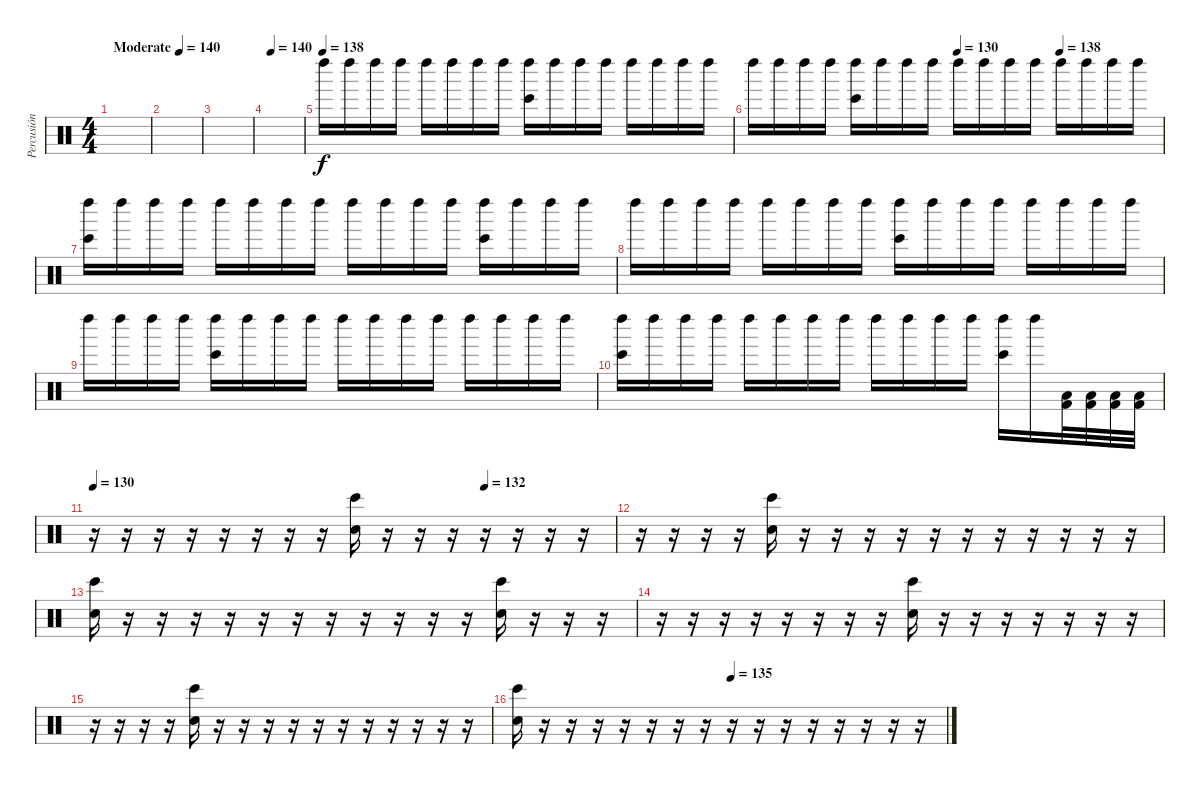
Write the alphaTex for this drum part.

\track ("Percusión" "Percusión") {instrument percussion}
\staff {score}
\articulation defaults
\ts (4 4)
\tempo (140 "Moderate")
\clef neutral
\ks c
|
|
|
\tempo (140 0.125)
|
\tempo (138)
"Left Maraca (hit)".16 "Left Maraca (hit)".16 "Left Maraca (hit)".16 "Left Maraca (hit)".16 "Left Maraca (hit)".16 "Left Maraca (hit)".16 "Left Maraca (hit)".16 "Left Maraca (hit)".16 ("Bongo High (hit)" "Left Maraca (hit)").16 "Left Maraca (hit)".16 "Left Maraca (hit)".16 "Left Maraca (hit)".16 "Left Maraca (hit)".16 "Left Maraca (hit)".16 "Left Maraca (hit)".16 "Left Maraca (hit)".16 |
\tempo (130 0.5)
\tempo (138 0.75)
"Left Maraca (hit)".16 "Left Maraca (hit)".16 "Left Maraca (hit)".16 "Left Maraca (hit)".16 ("Bongo High (hit)" "Left Maraca (hit)").16 "Left Maraca (hit)".16 "Left Maraca (hit)".16 "Left Maraca (hit)".16 "Left Maraca (hit)".16 "Left Maraca (hit)".16 "Left Maraca (hit)".16 "Left Maraca (hit)".16 "Left Maraca (hit)".16 "Left Maraca (hit)".16 "Left Maraca (hit)".16 "Left Maraca (hit)".16 |
("Bongo High (hit)" "Left Maraca (hit)").16 "Left Maraca (hit)".16 "Left Maraca (hit)".16 "Left Maraca (hit)".16 "Left Maraca (hit)".16 "Left Maraca (hit)".16 "Left Maraca (hit)".16 "Left Maraca (hit)".16 "Left Maraca (hit)".16 "Left Maraca (hit)".16 "Left Maraca (hit)".16 "Left Maraca (hit)".16 ("Bongo High (hit)" "Left Maraca (hit)").16 "Left Maraca (hit)".16 "Left Maraca (hit)".16 "Left Maraca (hit)".16 |
"Left Maraca (hit)".16 "Left Maraca (hit)".16 "Left Maraca (hit)".16 "Left Maraca (hit)".16 "Left Maraca (hit)".16 "Left Maraca (hit)".16 "Left Maraca (hit)".16 "Left Maraca (hit)".16 ("Bongo High (hit)" "Left Maraca (hit)").16 "Left Maraca (hit)".16 "Left Maraca (hit)".16 "Left Maraca (hit)".16 "Left Maraca (hit)".16 "Left Maraca (hit)".16 "Left Maraca (hit)".16 "Left Maraca (hit)".16 |
"Left Maraca (hit)".16 "Left Maraca (hit)".16 "Left Maraca (hit)".16 "Left Maraca (hit)".16 ("Bongo High (hit)" "Left Maraca (hit)").16 "Left Maraca (hit)".16 "Left Maraca (hit)".16 "Left Maraca (hit)".16 "Left Maraca (hit)".16 "Left Maraca (hit)".16 "Left Maraca (hit)".16 "Left Maraca (hit)".16 "Left Maraca (hit)".16 "Left Maraca (hit)".16 "Left Maraca (hit)".16 "Left Maraca (hit)".16 |
("Bongo High (hit)" "Left Maraca (hit)").16 "Left Maraca (hit)".16 "Left Maraca (hit)".16 "Left Maraca (hit)".16 "Left Maraca (hit)".16 "Left Maraca (hit)".16 "Left Maraca (hit)".16 "Left Maraca (hit)".16 "Left Maraca (hit)".16 "Left Maraca (hit)".16 "Left Maraca (hit)".16 "Left Maraca (hit)".16 ("Bongo High (hit)" "Left Maraca (hit)").16 "Left Maraca (hit)".16 ("Kick (hit) 2" "Low Tom (hit)").32 ("Kick (hit) 2" "Low Tom (hit)").32 ("Kick (hit) 2" "Low Tom (hit)").32 ("Kick (hit) 2" "Low Tom (hit)").32 |
\tempo 130
\tempo (135 0.75)
\tempo (132 0.75)
r.16 r.16 r.16 r.16 r.16 r.16 r.16 r.16 ("Bongo High (hit)" "Snare (hit) 2").16 r.16 r.16 r.16 r.16 r.16 r.16 r.16 |
r.16 r.16 r.16 r.16 ("Bongo High (hit)" "Snare (hit) 2").16 r.16 r.16 r.16 r.16 r.16 r.16 r.16 r.16 r.16 r.16 r.16 |
("Bongo High (hit)" "Snare (hit) 2").16 r.16 r.16 r.16 r.16 r.16 r.16 r.16 r.16 r.16 r.16 r.16 ("Bongo High (hit)" "Snare (hit) 2").16 r.16 r.16 r.16 |
r.16 r.16 r.16 r.16 r.16 r.16 r.16 r.16 ("Bongo High (hit)" "Snare (hit) 2").16 r.16 r.16 r.16 r.16 r.16 r.16 r.16 |
r.16 r.16 r.16 r.16 ("Bongo High (hit)" "Snare (hit) 2").16 r.16 r.16 r.16 r.16 r.16 r.16 r.16 r.16 r.16 r.16 r.16 |
\tempo (135 0.5)
("Bongo High (hit)" "Snare (hit) 2").16 r.16 r.16 r.16 r.16 r.16 r.16 r.16 r.16 r.16 r.16 r.16 r.16 r.16 r.16 r.16
